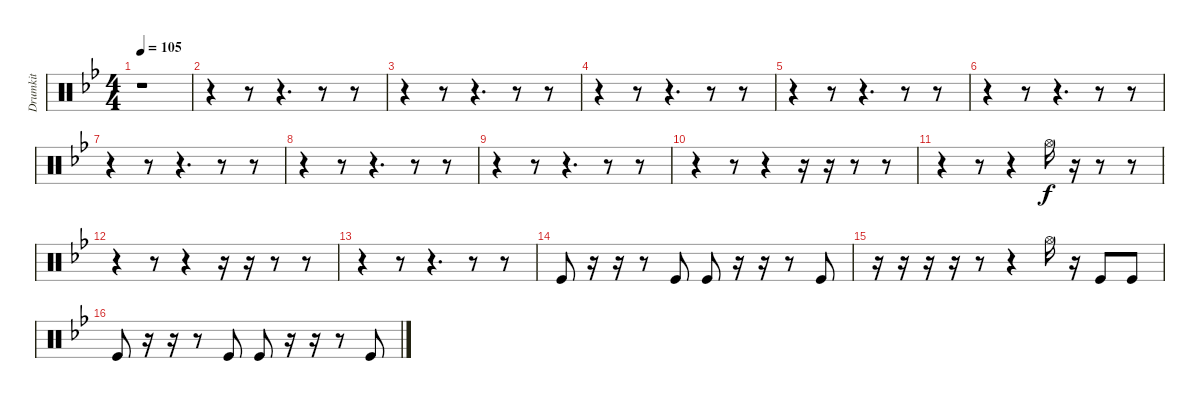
\track ("Drumkit" "Drumkit") {instrument percussion}
\staff {score}
\articulation defaults
\ts (4 4)
\tempo 105
\clef neutral
\ks gminor
r.1{dy f} |
r.4 r.8 r.4{d} r.8 r.8 |
r.4 r.8 r.4{d} r.8 r.8 |
r.4 r.8 r.4{d} r.8 r.8 |
r.4 r.8 r.4{d} r.8 r.8 |
r.4 r.8 r.4{d} r.8 r.8 |
r.4 r.8 r.4{d} r.8 r.8 |
r.4 r.8 r.4{d} r.8 r.8 |
r.4 r.8 r.4{d} r.8 r.8 |
r.4 r.8 r.4 r.16 r.16 r.8 r.8 |
r.4 r.8 r.4 "Hi-Hat (open)".16 r.16 r.8 r.8 |
r.4 r.8 r.4 r.16 r.16 r.8 r.8 |
r.4 r.8 r.4{d} r.8 r.8 |
"Kick (hit)".8 r.16 r.16 r.8 "Kick (hit)".8 "Kick (hit)".8 r.16 r.16 r.8 "Kick (hit)".8 |
r.16 r.16 r.16 r.16 r.8 r.4 "Hi-Hat (open)".16 r.16 "Kick (hit)".8 "Kick (hit)".8 |
"Kick (hit)".8 r.16 r.16 r.8 "Kick (hit)".8 "Kick (hit)".8 r.16 r.16 r.8 "Kick (hit)".8
